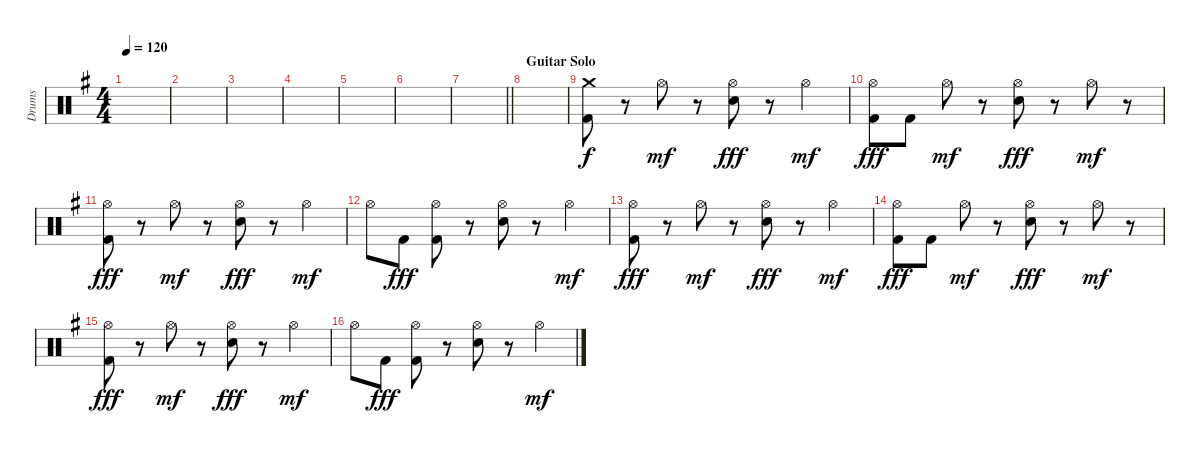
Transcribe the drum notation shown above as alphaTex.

\track ("Drums" "Drums") {instrument percussion}
\staff {score}
\articulation defaults
\ts (4 4)
\tempo 120
\clef neutral
\ks g
|
|
|
|
|
|
\barLineRight lightlight
|
\section ("" "Guitar Solo")
|
("Crash medium (hit)" "Kick (hit) 2").8 r.8 "Hi-Hat (open)".8{dy mf} r.8 ("Hi-Hat (open)" "Electric Snare (hit)").8{dy fff} r.8 "Hi-Hat (open)".4{dy mf} |
("Hi-Hat (open)" "Kick (hit) 2").8{dy fff} "Kick (hit) 2".8 "Hi-Hat (open)".8{dy mf} r.8 ("Hi-Hat (open)" "Electric Snare (hit)").8{dy fff} r.8 "Hi-Hat (open)".8{dy mf} r.8 |
("Hi-Hat (open)" "Kick (hit) 2").8{dy fff} r.8 "Hi-Hat (open)".8{dy mf} r.8 ("Hi-Hat (open)" "Electric Snare (hit)").8{dy fff} r.8 "Hi-Hat (open)".4{dy mf} |
"Hi-Hat (open)".8 "Kick (hit) 2".8{dy fff} ("Hi-Hat (open)" "Kick (hit) 2").8 r.8 ("Hi-Hat (open)" "Electric Snare (hit)").8 r.8 "Hi-Hat (open)".4{dy mf} |
("Hi-Hat (open)" "Kick (hit) 2").8{dy fff} r.8 "Hi-Hat (open)".8{dy mf} r.8 ("Hi-Hat (open)" "Electric Snare (hit)").8{dy fff} r.8 "Hi-Hat (open)".4{dy mf} |
("Hi-Hat (open)" "Kick (hit) 2").8{dy fff} "Kick (hit) 2".8 "Hi-Hat (open)".8{dy mf} r.8 ("Hi-Hat (open)" "Electric Snare (hit)").8{dy fff} r.8 "Hi-Hat (open)".8{dy mf} r.8 |
("Hi-Hat (open)" "Kick (hit) 2").8{dy fff} r.8 "Hi-Hat (open)".8{dy mf} r.8 ("Hi-Hat (open)" "Electric Snare (hit)").8{dy fff} r.8 "Hi-Hat (open)".4{dy mf} |
"Hi-Hat (open)".8 "Kick (hit) 2".8{dy fff} ("Hi-Hat (open)" "Kick (hit) 2").8 r.8 ("Hi-Hat (open)" "Electric Snare (hit)").8 r.8 "Hi-Hat (open)".4{dy mf}
